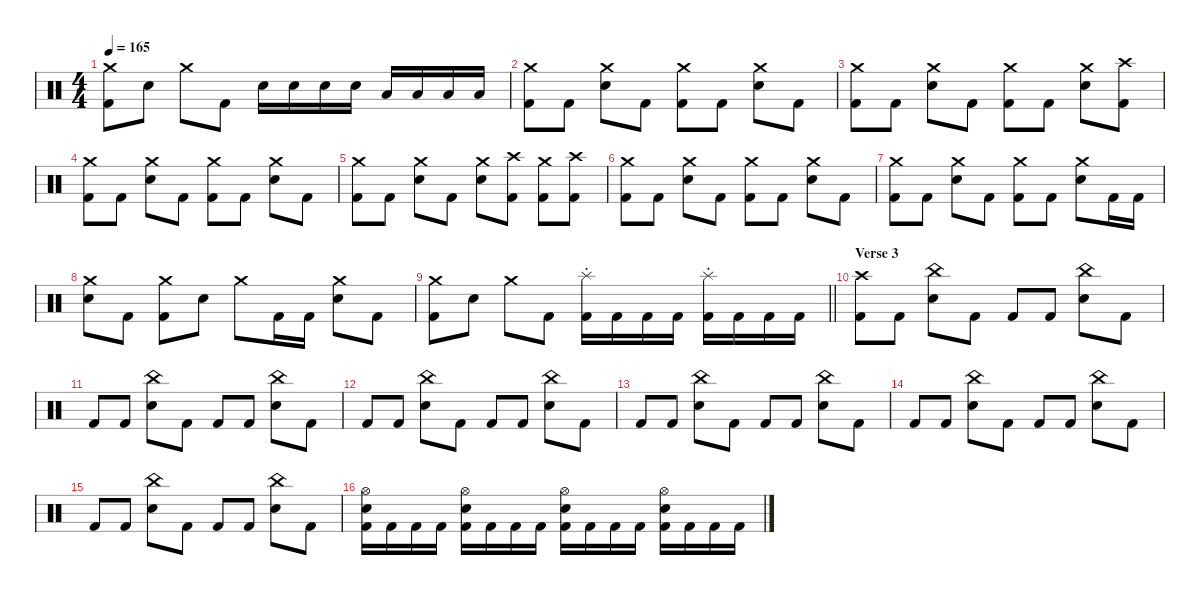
\defaultSystemsLayout 4
\hideDynamics
\bracketExtendMode nobrackets
\singleTrackTrackNamePolicy hidden
\multiTrackTrackNamePolicy hidden
\firstSystemTrackNameMode fullname
\firstSystemTrackNameOrientation horizontal
\otherSystemsTrackNameOrientation horizontal
\track ("Percussions" "drm.") {instrument percussion}
\staff {score}
\articulation defaults
\ts (4 4)
\tempo 165
\clef neutral
\ks c
("Crash medium (hit)" "Kick (hit) 2").8{dy f beam Down} "Snare (hit) 2".8{beam Down} "Crash medium (hit)".8{beam Down} "Kick (hit) 2".8{beam Down} "Snare (hit) 2".16{beam Down} "Snare (hit) 2".16{beam Down} "Snare (hit) 2".16{beam Down} "Snare (hit) 2".16{beam Down} "Low Tom (hit)".16{dy ff beam Up} "Low Tom (hit)".16{beam Up} "Low Tom (hit)".16{beam Up} "Low Tom (hit)".16{beam Up} |
("Crash medium (hit)" "Kick (hit) 2").8{dy f beam Down} "Kick (hit) 2".8{beam Down} ("Crash medium (hit)" "Snare (hit) 2").8{beam Down} "Kick (hit) 2".8{beam Down} ("Crash medium (hit)" "Kick (hit) 2").8{beam Down} "Kick (hit) 2".8{beam Down} ("Crash medium (hit)" "Snare (hit) 2").8{beam Down} "Kick (hit) 2".8{beam Down} |
("Crash medium (hit)" "Kick (hit) 2").8{beam Down} "Kick (hit) 2".8{beam Down} ("Crash medium (hit)" "Snare (hit) 2").8{beam Down} "Kick (hit) 2".8{beam Down} ("Crash medium (hit)" "Kick (hit) 2").8{beam Down} "Kick (hit) 2".8{beam Down} ("Crash medium (hit)" "Snare (hit) 2").8{beam Down} ("Crash high (hit)" "Kick (hit) 2").8{beam Down} |
("Crash medium (hit)" "Kick (hit) 2").8{beam Down} "Kick (hit) 2".8{beam Down} ("Crash medium (hit)" "Snare (hit) 2").8{beam Down} "Kick (hit) 2".8{beam Down} ("Crash medium (hit)" "Kick (hit) 2").8{beam Down} "Kick (hit) 2".8{beam Down} ("Crash medium (hit)" "Snare (hit) 2").8{beam Down} "Kick (hit) 2".8{beam Down} |
("Crash medium (hit)" "Kick (hit) 2").8{beam Down} "Kick (hit) 2".8{beam Down} ("Crash medium (hit)" "Snare (hit) 2").8{beam Down} "Kick (hit) 2".8{beam Down} ("Crash medium (hit)" "Snare (hit) 2").8{beam Down} ("Crash high (hit)" "Kick (hit) 2").8{beam Down} ("Crash medium (hit)" "Kick (hit) 2").8{beam Down} ("Crash high (hit)" "Kick (hit) 2").8{beam Down} |
("Crash medium (hit)" "Kick (hit) 2").8{beam Down} "Kick (hit) 2".8{beam Down} ("Crash medium (hit)" "Snare (hit) 2").8{beam Down} "Kick (hit) 2".8{beam Down} ("Crash medium (hit)" "Kick (hit) 2").8{beam Down} "Kick (hit) 2".8{beam Down} ("Crash medium (hit)" "Snare (hit) 2").8{beam Down} "Kick (hit) 2".8{beam Down} |
("Crash medium (hit)" "Kick (hit) 2").8{beam Down} "Kick (hit) 2".8{beam Down} ("Crash medium (hit)" "Snare (hit) 2").8{beam Down} "Kick (hit) 2".8{beam Down} ("Crash medium (hit)" "Kick (hit) 2").8{beam Down} "Kick (hit) 2".8{beam Down} ("Crash medium (hit)" "Snare (hit) 2").8{beam Down} "Kick (hit) 2".16{beam Down} "Kick (hit) 2".16{beam Down} |
("Crash medium (hit)" "Snare (hit) 2").8{beam Down} "Kick (hit) 2".8{beam Down} ("Crash medium (hit)" "Kick (hit) 2").8{beam Down} "Snare (hit) 2".8{beam Down} "Crash medium (hit)".8{beam Down} "Kick (hit) 2".16{beam Down} "Kick (hit) 2".16{beam Down} ("Crash medium (hit)" "Snare (hit) 2").8{beam Down} "Kick (hit) 2".8{beam Down} |
\barLineRight lightlight
("Crash medium (hit)" "Kick (hit) 2").8{beam Down} "Snare (hit) 2".8{beam Down} "Crash medium (hit)".8{beam Down} "Kick (hit) 2".8{beam Down} ("Splash (hit)"{st} "Kick (hit) 2").16{beam Down} "Kick (hit) 2".16{beam Down} "Kick (hit) 2".16{beam Down} "Kick (hit) 2".16{beam Down} ("Splash (hit)"{st} "Kick (hit) 2").16{beam Down} "Kick (hit) 2".16{beam Down} "Kick (hit) 2".16{beam Down} "Kick (hit) 2".16{beam Down} |
\section ("" "Verse 3")
("Crash high (hit)" "Kick (hit) 2").8{dy ff beam Down} "Kick (hit) 2".8{dy f beam Down} ("China (hit)" "Snare (hit) 2").8{beam Down} "Kick (hit) 2".8{beam Down} "Kick (hit) 2".8{beam Up} "Kick (hit) 2".8{beam Up} ("China (hit)" "Snare (hit) 2").8{beam Down} "Kick (hit) 2".8{beam Down} |
"Kick (hit) 2".8{beam Up} "Kick (hit) 2".8{beam Up} ("China (hit)" "Snare (hit) 2").8{beam Down} "Kick (hit) 2".8{beam Down} "Kick (hit) 2".8{beam Up} "Kick (hit) 2".8{beam Up} ("China (hit)" "Snare (hit) 2").8{beam Down} "Kick (hit) 2".8{beam Down} |
"Kick (hit) 2".8{beam Up} "Kick (hit) 2".8{beam Up} ("China (hit)" "Snare (hit) 2").8{beam Down} "Kick (hit) 2".8{beam Down} "Kick (hit) 2".8{beam Up} "Kick (hit) 2".8{beam Up} ("China (hit)" "Snare (hit) 2").8{beam Down} "Kick (hit) 2".8{beam Down} |
"Kick (hit) 2".8{beam Up} "Kick (hit) 2".8{beam Up} ("China (hit)" "Snare (hit) 2").8{beam Down} "Kick (hit) 2".8{beam Down} "Kick (hit) 2".8{beam Up} "Kick (hit) 2".8{beam Up} ("China (hit)" "Snare (hit) 2").8{beam Down} "Kick (hit) 2".8{beam Down} |
"Kick (hit) 2".8{beam Up} "Kick (hit) 2".8{beam Up} ("China (hit)" "Snare (hit) 2").8{beam Down} "Kick (hit) 2".8{beam Down} "Kick (hit) 2".8{beam Up} "Kick (hit) 2".8{beam Up} ("China (hit)" "Snare (hit) 2").8{beam Down} "Kick (hit) 2".8{beam Down} |
"Kick (hit) 2".8{beam Up} "Kick (hit) 2".8{beam Up} ("China (hit)" "Snare (hit) 2").8{beam Down} "Kick (hit) 2".8{beam Down} "Kick (hit) 2".8{beam Up} "Kick (hit) 2".8{beam Up} ("China (hit)" "Snare (hit) 2").8{beam Down} "Kick (hit) 2".8{beam Down} |
("Hi-Hat (open)" "Snare (hit) 2" "Kick (hit) 2").16{beam Down} "Kick (hit) 2".16{beam Down} "Kick (hit) 2".16{beam Down} "Kick (hit) 2".16{beam Down} ("Hi-Hat (open)" "Snare (hit) 2" "Kick (hit) 2").16{beam Down} "Kick (hit) 2".16{beam Down} "Kick (hit) 2".16{beam Down} "Kick (hit) 2".16{beam Down} ("Hi-Hat (open)" "Snare (hit) 2" "Kick (hit) 2").16{beam Down} "Kick (hit) 2".16{beam Down} "Kick (hit) 2".16{beam Down} "Kick (hit) 2".16{beam Down} ("Hi-Hat (open)" "Snare (hit) 2" "Kick (hit) 2").16{beam Down} "Kick (hit) 2".16{beam Down} "Kick (hit) 2".16{beam Down} "Kick (hit) 2".16{beam Down}
